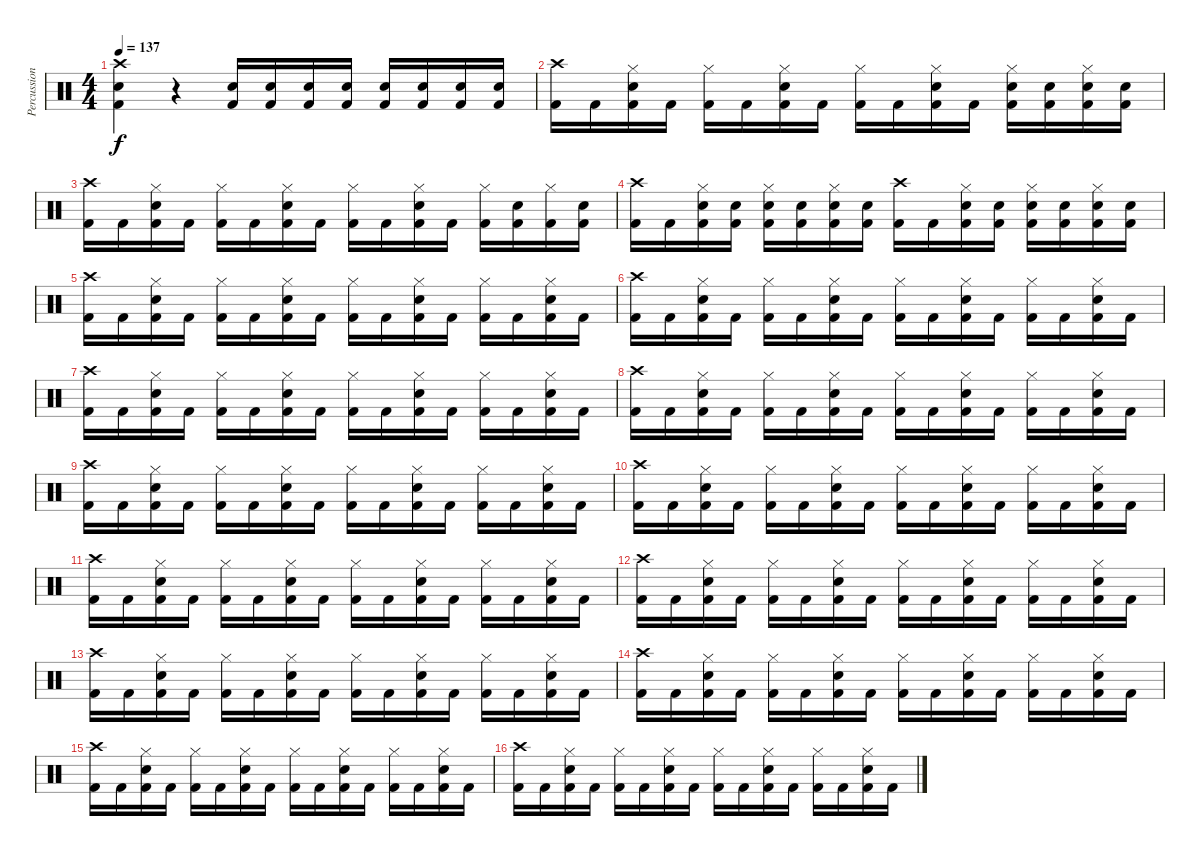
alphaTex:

\track ("Percussion" "Percussion") {instrument percussion}
\staff {score}
\articulation defaults
\ts (4 4)
\tempo 137
\clef neutral
\ks c
("Crash high (hit)" "Snare (hit) 2" "Kick (hit) 2").4{dy f} r.4 ("Snare (hit) 2" "Kick (hit) 2").16 ("Snare (hit) 2" "Kick (hit) 2").16 ("Snare (hit) 2" "Kick (hit) 2").16 ("Snare (hit) 2" "Kick (hit) 2").16 ("Snare (hit) 2" "Kick (hit) 2").16 ("Snare (hit) 2" "Kick (hit) 2").16 ("Snare (hit) 2" "Kick (hit) 2").16 ("Snare (hit) 2" "Kick (hit) 2").16 |
("Crash high (hit)" "Kick (hit) 2").16 "Kick (hit) 2".16 ("Hi-Hat (closed)" "Snare (hit) 2" "Kick (hit) 2").16 "Kick (hit) 2".16 ("Hi-Hat (closed)" "Kick (hit) 2").16 "Kick (hit) 2".16 ("Hi-Hat (closed)" "Snare (hit) 2" "Kick (hit) 2").16 "Kick (hit) 2".16 ("Hi-Hat (closed)" "Kick (hit) 2").16 "Kick (hit) 2".16 ("Hi-Hat (closed)" "Snare (hit) 2" "Kick (hit) 2").16 "Kick (hit) 2".16 ("Hi-Hat (closed)" "Snare (hit) 2" "Kick (hit) 2").16 ("Snare (hit) 2" "Kick (hit) 2").16 ("Hi-Hat (closed)" "Snare (hit) 2" "Kick (hit) 2").16 ("Snare (hit) 2" "Kick (hit) 2").16 |
("Crash high (hit)" "Kick (hit) 2").16 "Kick (hit) 2".16 ("Hi-Hat (closed)" "Snare (hit) 2" "Kick (hit) 2").16 "Kick (hit) 2".16 ("Hi-Hat (closed)" "Kick (hit) 2").16 "Kick (hit) 2".16 ("Hi-Hat (closed)" "Snare (hit) 2" "Kick (hit) 2").16 "Kick (hit) 2".16 ("Hi-Hat (closed)" "Kick (hit) 2").16 "Kick (hit) 2".16 ("Hi-Hat (closed)" "Snare (hit) 2" "Kick (hit) 2").16 "Kick (hit) 2".16 ("Hi-Hat (closed)" "Kick (hit) 2").16 ("Snare (hit) 2" "Kick (hit) 2").16 ("Hi-Hat (closed)" "Kick (hit) 2").16 ("Snare (hit) 2" "Kick (hit) 2").16 |
("Crash high (hit)" "Kick (hit) 2").16 "Kick (hit) 2".16 ("Hi-Hat (closed)" "Snare (hit) 2" "Kick (hit) 2").16 ("Snare (hit) 2" "Kick (hit) 2").16 ("Hi-Hat (closed)" "Snare (hit) 2" "Kick (hit) 2").16 ("Snare (hit) 2" "Kick (hit) 2").16 ("Hi-Hat (closed)" "Snare (hit) 2" "Kick (hit) 2").16 ("Snare (hit) 2" "Kick (hit) 2").16 ("Crash high (hit)" "Kick (hit) 2").16 "Kick (hit) 2".16 ("Hi-Hat (closed)" "Snare (hit) 2" "Kick (hit) 2").16 ("Snare (hit) 2" "Kick (hit) 2").16 ("Hi-Hat (closed)" "Snare (hit) 2" "Kick (hit) 2").16 ("Snare (hit) 2" "Kick (hit) 2").16 ("Hi-Hat (closed)" "Snare (hit) 2" "Kick (hit) 2").16 ("Snare (hit) 2" "Kick (hit) 2").16 |
("Crash high (hit)" "Kick (hit) 2").16 "Kick (hit) 2".16 ("Hi-Hat (closed)" "Snare (hit) 2" "Kick (hit) 2").16 "Kick (hit) 2".16 ("Hi-Hat (closed)" "Kick (hit) 2").16 "Kick (hit) 2".16 ("Hi-Hat (closed)" "Snare (hit) 2" "Kick (hit) 2").16 "Kick (hit) 2".16 ("Hi-Hat (closed)" "Kick (hit) 2").16 "Kick (hit) 2".16 ("Hi-Hat (closed)" "Snare (hit) 2" "Kick (hit) 2").16 "Kick (hit) 2".16 ("Hi-Hat (closed)" "Kick (hit) 2").16 "Kick (hit) 2".16 ("Hi-Hat (closed)" "Snare (hit) 2" "Kick (hit) 2").16 "Kick (hit) 2".16 |
("Crash high (hit)" "Kick (hit) 2").16 "Kick (hit) 2".16 ("Hi-Hat (closed)" "Snare (hit) 2" "Kick (hit) 2").16 "Kick (hit) 2".16 ("Hi-Hat (closed)" "Kick (hit) 2").16 "Kick (hit) 2".16 ("Hi-Hat (closed)" "Snare (hit) 2" "Kick (hit) 2").16 "Kick (hit) 2".16 ("Hi-Hat (closed)" "Kick (hit) 2").16 "Kick (hit) 2".16 ("Hi-Hat (closed)" "Snare (hit) 2" "Kick (hit) 2").16 "Kick (hit) 2".16 ("Hi-Hat (closed)" "Kick (hit) 2").16 "Kick (hit) 2".16 ("Hi-Hat (closed)" "Snare (hit) 2" "Kick (hit) 2").16 "Kick (hit) 2".16 |
("Crash high (hit)" "Kick (hit) 2").16 "Kick (hit) 2".16 ("Hi-Hat (closed)" "Snare (hit) 2" "Kick (hit) 2").16 "Kick (hit) 2".16 ("Hi-Hat (closed)" "Kick (hit) 2").16 "Kick (hit) 2".16 ("Hi-Hat (closed)" "Snare (hit) 2" "Kick (hit) 2").16 "Kick (hit) 2".16 ("Hi-Hat (closed)" "Kick (hit) 2").16 "Kick (hit) 2".16 ("Hi-Hat (closed)" "Snare (hit) 2" "Kick (hit) 2").16 "Kick (hit) 2".16 ("Hi-Hat (closed)" "Kick (hit) 2").16 "Kick (hit) 2".16 ("Hi-Hat (closed)" "Snare (hit) 2" "Kick (hit) 2").16 "Kick (hit) 2".16 |
("Crash high (hit)" "Kick (hit) 2").16 "Kick (hit) 2".16 ("Hi-Hat (closed)" "Snare (hit) 2" "Kick (hit) 2").16 "Kick (hit) 2".16 ("Hi-Hat (closed)" "Kick (hit) 2").16 "Kick (hit) 2".16 ("Hi-Hat (closed)" "Snare (hit) 2" "Kick (hit) 2").16 "Kick (hit) 2".16 ("Hi-Hat (closed)" "Kick (hit) 2").16 "Kick (hit) 2".16 ("Hi-Hat (closed)" "Snare (hit) 2" "Kick (hit) 2").16 "Kick (hit) 2".16 ("Hi-Hat (closed)" "Kick (hit) 2").16 "Kick (hit) 2".16 ("Hi-Hat (closed)" "Snare (hit) 2" "Kick (hit) 2").16 "Kick (hit) 2".16 |
("Crash high (hit)" "Kick (hit) 2").16 "Kick (hit) 2".16 ("Hi-Hat (closed)" "Snare (hit) 2" "Kick (hit) 2").16 "Kick (hit) 2".16 ("Hi-Hat (closed)" "Kick (hit) 2").16 "Kick (hit) 2".16 ("Hi-Hat (closed)" "Snare (hit) 2" "Kick (hit) 2").16 "Kick (hit) 2".16 ("Hi-Hat (closed)" "Kick (hit) 2").16 "Kick (hit) 2".16 ("Hi-Hat (closed)" "Snare (hit) 2" "Kick (hit) 2").16 "Kick (hit) 2".16 ("Hi-Hat (closed)" "Kick (hit) 2").16 "Kick (hit) 2".16 ("Hi-Hat (closed)" "Snare (hit) 2" "Kick (hit) 2").16 "Kick (hit) 2".16 |
("Crash high (hit)" "Kick (hit) 2").16 "Kick (hit) 2".16 ("Hi-Hat (closed)" "Snare (hit) 2" "Kick (hit) 2").16 "Kick (hit) 2".16 ("Hi-Hat (closed)" "Kick (hit) 2").16 "Kick (hit) 2".16 ("Hi-Hat (closed)" "Snare (hit) 2" "Kick (hit) 2").16 "Kick (hit) 2".16 ("Hi-Hat (closed)" "Kick (hit) 2").16 "Kick (hit) 2".16 ("Hi-Hat (closed)" "Snare (hit) 2" "Kick (hit) 2").16 "Kick (hit) 2".16 ("Hi-Hat (closed)" "Kick (hit) 2").16 "Kick (hit) 2".16 ("Hi-Hat (closed)" "Snare (hit) 2" "Kick (hit) 2").16 "Kick (hit) 2".16 |
("Crash high (hit)" "Kick (hit) 2").16 "Kick (hit) 2".16 ("Hi-Hat (closed)" "Snare (hit) 2" "Kick (hit) 2").16 "Kick (hit) 2".16 ("Hi-Hat (closed)" "Kick (hit) 2").16 "Kick (hit) 2".16 ("Hi-Hat (closed)" "Snare (hit) 2" "Kick (hit) 2").16 "Kick (hit) 2".16 ("Hi-Hat (closed)" "Kick (hit) 2").16 "Kick (hit) 2".16 ("Hi-Hat (closed)" "Snare (hit) 2" "Kick (hit) 2").16 "Kick (hit) 2".16 ("Hi-Hat (closed)" "Kick (hit) 2").16 "Kick (hit) 2".16 ("Hi-Hat (closed)" "Snare (hit) 2" "Kick (hit) 2").16 "Kick (hit) 2".16 |
("Crash high (hit)" "Kick (hit) 2").16 "Kick (hit) 2".16 ("Hi-Hat (closed)" "Snare (hit) 2" "Kick (hit) 2").16 "Kick (hit) 2".16 ("Hi-Hat (closed)" "Kick (hit) 2").16 "Kick (hit) 2".16 ("Hi-Hat (closed)" "Snare (hit) 2" "Kick (hit) 2").16 "Kick (hit) 2".16 ("Hi-Hat (closed)" "Kick (hit) 2").16 "Kick (hit) 2".16 ("Hi-Hat (closed)" "Snare (hit) 2" "Kick (hit) 2").16 "Kick (hit) 2".16 ("Hi-Hat (closed)" "Kick (hit) 2").16 "Kick (hit) 2".16 ("Hi-Hat (closed)" "Snare (hit) 2" "Kick (hit) 2").16 "Kick (hit) 2".16 |
("Crash high (hit)" "Kick (hit) 2").16 "Kick (hit) 2".16 ("Hi-Hat (closed)" "Snare (hit) 2" "Kick (hit) 2").16 "Kick (hit) 2".16 ("Hi-Hat (closed)" "Kick (hit) 2").16 "Kick (hit) 2".16 ("Hi-Hat (closed)" "Snare (hit) 2" "Kick (hit) 2").16 "Kick (hit) 2".16 ("Hi-Hat (closed)" "Kick (hit) 2").16 "Kick (hit) 2".16 ("Hi-Hat (closed)" "Snare (hit) 2" "Kick (hit) 2").16 "Kick (hit) 2".16 ("Hi-Hat (closed)" "Kick (hit) 2").16 "Kick (hit) 2".16 ("Hi-Hat (closed)" "Snare (hit) 2" "Kick (hit) 2").16 "Kick (hit) 2".16 |
("Crash high (hit)" "Kick (hit) 2").16 "Kick (hit) 2".16 ("Hi-Hat (closed)" "Snare (hit) 2" "Kick (hit) 2").16 "Kick (hit) 2".16 ("Hi-Hat (closed)" "Kick (hit) 2").16 "Kick (hit) 2".16 ("Hi-Hat (closed)" "Snare (hit) 2" "Kick (hit) 2").16 "Kick (hit) 2".16 ("Hi-Hat (closed)" "Kick (hit) 2").16 "Kick (hit) 2".16 ("Hi-Hat (closed)" "Snare (hit) 2" "Kick (hit) 2").16 "Kick (hit) 2".16 ("Hi-Hat (closed)" "Kick (hit) 2").16 "Kick (hit) 2".16 ("Hi-Hat (closed)" "Snare (hit) 2" "Kick (hit) 2").16 "Kick (hit) 2".16 |
("Crash high (hit)" "Kick (hit) 2").16 "Kick (hit) 2".16 ("Hi-Hat (closed)" "Snare (hit) 2" "Kick (hit) 2").16 "Kick (hit) 2".16 ("Hi-Hat (closed)" "Kick (hit) 2").16 "Kick (hit) 2".16 ("Hi-Hat (closed)" "Snare (hit) 2" "Kick (hit) 2").16 "Kick (hit) 2".16 ("Hi-Hat (closed)" "Kick (hit) 2").16 "Kick (hit) 2".16 ("Hi-Hat (closed)" "Snare (hit) 2" "Kick (hit) 2").16 "Kick (hit) 2".16 ("Hi-Hat (closed)" "Kick (hit) 2").16 "Kick (hit) 2".16 ("Hi-Hat (closed)" "Snare (hit) 2" "Kick (hit) 2").16 "Kick (hit) 2".16 |
("Crash high (hit)" "Kick (hit) 2").16 "Kick (hit) 2".16 ("Hi-Hat (closed)" "Snare (hit) 2" "Kick (hit) 2").16 "Kick (hit) 2".16 ("Hi-Hat (closed)" "Kick (hit) 2").16 "Kick (hit) 2".16 ("Hi-Hat (closed)" "Snare (hit) 2" "Kick (hit) 2").16 "Kick (hit) 2".16 ("Hi-Hat (closed)" "Kick (hit) 2").16 "Kick (hit) 2".16 ("Hi-Hat (closed)" "Snare (hit) 2" "Kick (hit) 2").16 "Kick (hit) 2".16 ("Hi-Hat (closed)" "Kick (hit) 2").16 "Kick (hit) 2".16 ("Hi-Hat (closed)" "Snare (hit) 2" "Kick (hit) 2").16 "Kick (hit) 2".16
